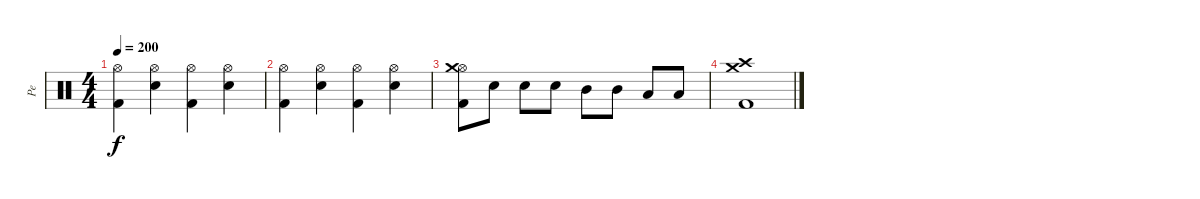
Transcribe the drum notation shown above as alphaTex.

\track ("Pe" "Pe") {instrument percussion}
\staff {score}
\articulation defaults
\ts (4 4)
\tempo 200
\clef neutral
\ks c
("Hi-Hat (open)" "Kick (hit) 2").4{dy f} ("Hi-Hat (open)" "Electric Snare (hit)").4 ("Hi-Hat (open)" "Kick (hit) 2").4 ("Hi-Hat (open)" "Electric Snare (hit)").4 |
("Hi-Hat (open)" "Kick (hit) 2").4 ("Hi-Hat (open)" "Electric Snare (hit)").4 ("Hi-Hat (open)" "Kick (hit) 2").4 ("Hi-Hat (open)" "Electric Snare (hit)").4 |
("Hi-Hat (open)" "Crash medium (hit)" "Kick (hit) 2").8 "Electric Snare (hit)".8 "Electric Snare (hit)".8 "Electric Snare (hit)".8 "Mid Tom (hit)".8 "Mid Tom (hit)".8 "Low Tom (hit)".8 "Low Tom (hit)".8 |
("Crash high (hit)" "Crash medium (hit)" "Kick (hit) 2").1
